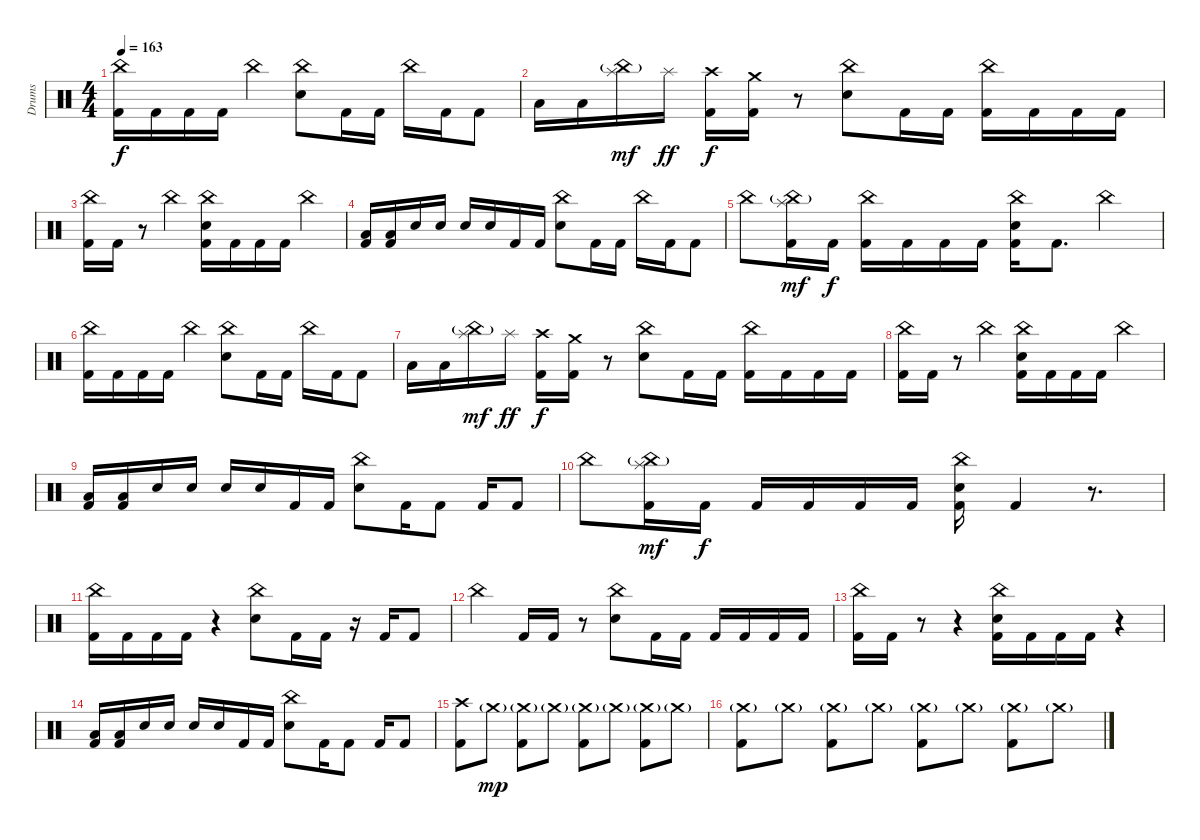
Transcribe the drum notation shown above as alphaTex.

\track ("Drums" "Drums") {instrument percussion}
\staff {score}
\articulation defaults
\ts (4 4)
\tempo 163
\clef neutral
\ks c
("China (hit)" "Kick (hit) 2").16{dy f} "Kick (hit) 2".16 "Kick (hit) 2".16 "Kick (hit) 2".16 "China (hit)".4 ("China (hit)" "Electric Snare (hit)").8 "Kick (hit) 2".16 "Kick (hit) 2".16 "China (hit)".16 "Kick (hit) 2".16 "Kick (hit) 2".8 |
"Low Tom (hit)".16 "Low Tom (hit)".16 ("Splash (hit)" "China (hit)"{g}).16{dy mf} "Splash (hit)".16{dy ff} ("Crash high (hit)" "Kick (hit) 2").16{dy f} ("Crash medium (hit)" "Kick (hit) 2").16 r.8 ("China (hit)" "Electric Snare (hit)").8 "Kick (hit) 2".16 "Kick (hit) 2".16 ("China (hit)" "Kick (hit) 2").16 "Kick (hit) 2".16 "Kick (hit) 2".16 "Kick (hit) 2".16 |
("China (hit)" "Kick (hit) 2").16 "Kick (hit) 2".16 r.8 "China (hit)".4 ("China (hit)" "Kick (hit) 2" "Electric Snare (hit)").16 "Kick (hit) 2".16 "Kick (hit) 2".16 "Kick (hit) 2".16 "China (hit)".4 |
("Low Tom (hit)" "Kick (hit) 2").16 ("Low Tom (hit)" "Kick (hit) 2").16 "Electric Snare (hit)".16 "Electric Snare (hit)".16 "Electric Snare (hit)".16 "Electric Snare (hit)".16 "Kick (hit) 2".16 "Kick (hit) 2".16 ("China (hit)" "Electric Snare (hit)").8 "Kick (hit) 2".16 "Kick (hit) 2".16 "China (hit)".16 "Kick (hit) 2".16 "Kick (hit) 2".8 |
"China (hit)".8 ("Splash (hit)" "China (hit)"{g} "Kick (hit) 2").16{dy mf} "Kick (hit) 2".16{dy f} ("China (hit)" "Kick (hit) 2").16 "Kick (hit) 2".16 "Kick (hit) 2".16 "Kick (hit) 2".16 ("China (hit)" "Kick (hit) 2" "Electric Snare (hit)").16 "Kick (hit) 2".8{d} "China (hit)".4 |
("China (hit)" "Kick (hit) 2").16 "Kick (hit) 2".16 "Kick (hit) 2".16 "Kick (hit) 2".16 "China (hit)".4 ("China (hit)" "Electric Snare (hit)").8 "Kick (hit) 2".16 "Kick (hit) 2".16 "China (hit)".16 "Kick (hit) 2".16 "Kick (hit) 2".8 |
"Low Tom (hit)".16 "Low Tom (hit)".16 ("Splash (hit)" "China (hit)"{g}).16{dy mf} "Splash (hit)".16{dy ff} ("Crash high (hit)" "Kick (hit) 2").16{dy f} ("Crash medium (hit)" "Kick (hit) 2").16 r.8 ("China (hit)" "Electric Snare (hit)").8 "Kick (hit) 2".16 "Kick (hit) 2".16 ("China (hit)" "Kick (hit) 2").16 "Kick (hit) 2".16 "Kick (hit) 2".16 "Kick (hit) 2".16 |
("China (hit)" "Kick (hit) 2").16 "Kick (hit) 2".16 r.8 "China (hit)".4 ("China (hit)" "Kick (hit) 2" "Electric Snare (hit)").16 "Kick (hit) 2".16 "Kick (hit) 2".16 "Kick (hit) 2".16 "China (hit)".4 |
("Low Tom (hit)" "Kick (hit) 2").16 ("Low Tom (hit)" "Kick (hit) 2").16 "Electric Snare (hit)".16 "Electric Snare (hit)".16 "Electric Snare (hit)".16 "Electric Snare (hit)".16 "Kick (hit) 2".16 "Kick (hit) 2".16 ("China (hit)" "Electric Snare (hit)").8 "Kick (hit) 2".16 "Kick (hit) 2".8 "Kick (hit) 2".16 "Kick (hit) 2".8 |
"China (hit)".8 ("Splash (hit)" "China (hit)"{g} "Kick (hit) 2").16{dy mf} "Kick (hit) 2".16{dy f} "Kick (hit) 2".16 "Kick (hit) 2".16 "Kick (hit) 2".16 "Kick (hit) 2".16 ("China (hit)" "Kick (hit) 2" "Electric Snare (hit)").16 "Kick (hit) 2".4 r.8{d} |
("China (hit)" "Kick (hit) 2").16 "Kick (hit) 2".16 "Kick (hit) 2".16 "Kick (hit) 2".16 r.4 ("China (hit)" "Electric Snare (hit)").8 "Kick (hit) 2".16 "Kick (hit) 2".16 r.16 "Kick (hit) 2".16 "Kick (hit) 2".8 |
"China (hit)".4 "Kick (hit) 2".16 "Kick (hit) 2".16 r.8 ("China (hit)" "Electric Snare (hit)").8 "Kick (hit) 2".16 "Kick (hit) 2".16 "Kick (hit) 2".16 "Kick (hit) 2".16 "Kick (hit) 2".16 "Kick (hit) 2".16 |
("China (hit)" "Kick (hit) 2").16 "Kick (hit) 2".16 r.8 r.4 ("China (hit)" "Kick (hit) 2" "Electric Snare (hit)").16 "Kick (hit) 2".16 "Kick (hit) 2".16 "Kick (hit) 2".16 r.4 |
("Low Tom (hit)" "Kick (hit) 2").16 ("Low Tom (hit)" "Kick (hit) 2").16 "Electric Snare (hit)".16 "Electric Snare (hit)".16 "Electric Snare (hit)".16 "Electric Snare (hit)".16 "Kick (hit) 2".16 "Kick (hit) 2".16 ("China (hit)" "Electric Snare (hit)").8 "Kick (hit) 2".16 "Kick (hit) 2".8 "Kick (hit) 2".16 "Kick (hit) 2".8 |
("Crash high (hit)" "Kick (hit) 2").8 "Crash medium (hit)"{g}.8{dy mp} ("Crash medium (hit)"{g} "Kick (hit) 2").8 "Crash medium (hit)"{g}.8 ("Crash medium (hit)"{g} "Kick (hit) 2").8 "Crash medium (hit)"{g}.8 ("Crash medium (hit)"{g} "Kick (hit) 2").8 "Crash medium (hit)"{g}.8 |
("Crash medium (hit)"{g} "Kick (hit) 2").8 "Crash medium (hit)"{g}.8 ("Crash medium (hit)"{g} "Kick (hit) 2").8 "Crash medium (hit)"{g}.8 ("Crash medium (hit)"{g} "Kick (hit) 2").8 "Crash medium (hit)"{g}.8 ("Crash medium (hit)"{g} "Kick (hit) 2").8 "Crash medium (hit)"{g}.8
